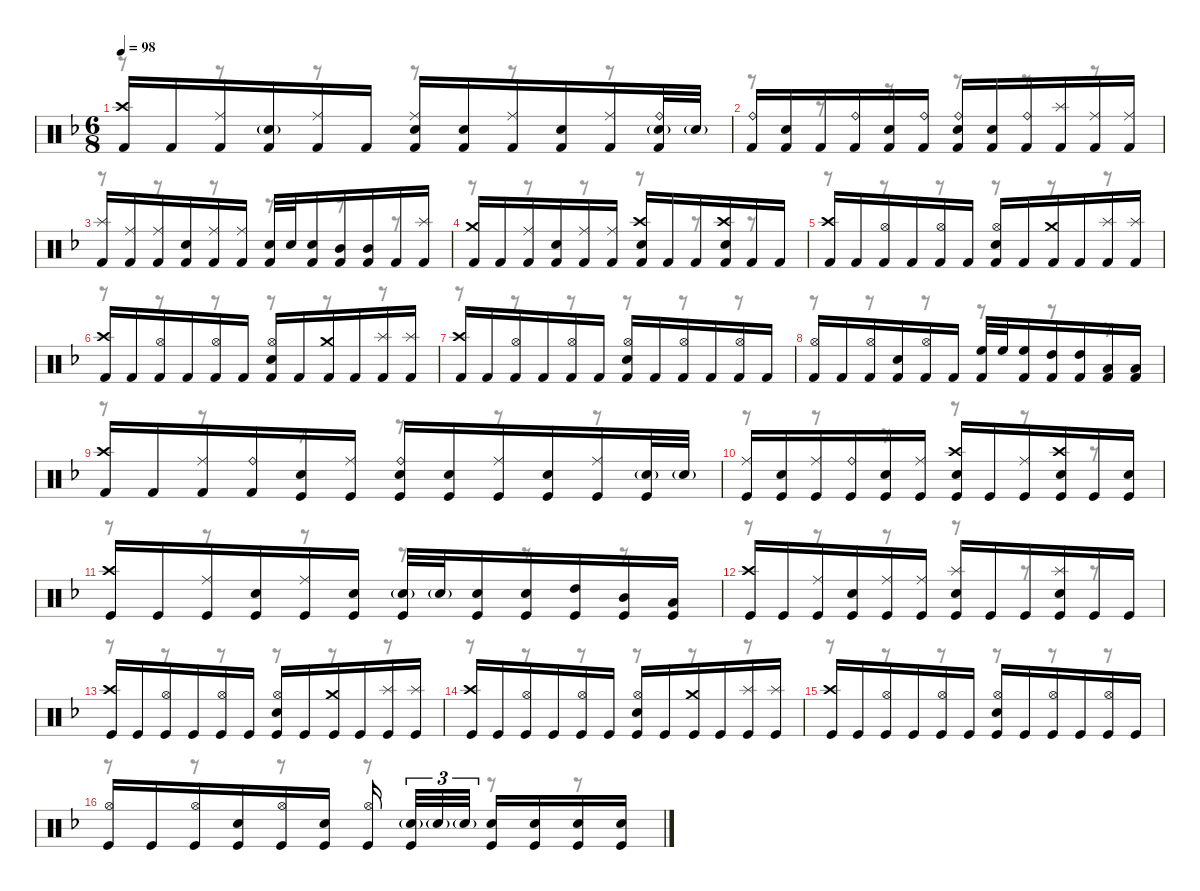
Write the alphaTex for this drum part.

\defaultSystemsLayout 4
\hideDynamics
\bracketExtendMode nobrackets
\singleTrackTrackNamePolicy hidden
\multiTrackTrackNamePolicy hidden
\otherSystemsTrackNameOrientation horizontal
\track ("M. Lopez" "drm.") {instrument percussion}
\staff {score}
\articulation defaults
\voice
\ts (6 8)
\tempo 98
\clef neutral
\ks dminor
("Crash high (hit)"{acc forcenatural} "Kick (hit) 2"{acc forcenatural}).16{dy f beam Up} "Kick (hit) 2"{acc forcenatural}.16{beam Up} ("Ride (middle)"{acc forcenatural} "Kick (hit) 2"{acc forcenatural}).16{beam Up} ("Snare (hit) 2"{g acc forcenatural} "Kick (hit) 2"{acc forcenatural}).16{beam Up} ("Ride (middle)"{acc forcenatural} "Kick (hit) 2"{acc forcenatural}).16{beam Up} "Kick (hit) 2"{acc forcenatural}.16{beam Up} ("Ride (middle)"{acc forcenatural} "Snare (hit) 2"{acc forcenatural} "Kick (hit) 2"{acc forcenatural}).16{beam Up} ("Snare (hit) 2"{acc forcenatural} "Kick (hit) 2"{acc forcenatural}).16{beam Up} ("Ride (middle)"{acc forcenatural} "Kick (hit) 2"{acc forcenatural}).16{beam Up} ("Snare (hit) 2"{acc forcenatural} "Kick (hit) 2"{acc forcenatural}).16{beam Up} ("Ride (middle)"{acc forcenatural} "Kick (hit) 2"{acc forcenatural}).16{beam Up} ("Ride (bell)"{acc forcenatural} "Snare (hit) 2"{g acc forcenatural} "Kick (hit) 2"{acc forcenatural}).32{beam Up} "Snare (hit) 2"{g acc forcenatural}.32{dy mf beam Up} |
("Ride (bell)"{acc forcenatural} "Kick (hit) 2"{acc forcenatural}).16{dy f beam Up} ("Snare (hit) 2"{acc forcenatural} "Kick (hit) 2"{acc forcenatural}).16{beam Up} "Kick (hit) 2"{acc forcenatural}.16{beam Up} ("Ride (bell)"{acc forcenatural} "Kick (hit) 2"{acc forcenatural}).16{beam Up} ("Snare (hit) 2"{acc forcenatural} "Kick (hit) 2"{acc forcenatural}).16{beam Up} ("Ride (bell)"{acc forcenatural} "Kick (hit) 2"{acc forcenatural}).16{beam Up} ("Ride (bell)"{acc forcenatural} "Snare (hit) 2"{acc forcenatural} "Kick (hit) 2"{acc forcenatural}).16{beam Up} ("Snare (hit) 2"{acc forcenatural} "Kick (hit) 2"{acc forcenatural}).16{beam Up} ("Ride (bell)"{acc forcenatural} "Kick (hit) 2"{acc forcenatural}).16{beam Up} ("Splash (hit)"{acc forcenatural} "Kick (hit) 2"{acc forcenatural}).16{beam Up} ("Ride (middle)"{acc forcenatural} "Kick (hit) 2"{acc forcenatural}).16{beam Up} ("Ride (middle)"{acc forcenatural} "Kick (hit) 2"{acc forcenatural}).16{beam Up} |
("Splash (hit)"{acc forcenatural} "Kick (hit) 2"{acc forcenatural}).16{beam Up} ("Ride (middle)"{acc forcenatural} "Kick (hit) 2"{acc forcenatural}).16{beam Up} ("Ride (middle)"{acc forcenatural} "Kick (hit) 2"{acc forcenatural}).16{beam Up} ("Snare (hit) 2"{acc forcenatural} "Kick (hit) 2"{acc forcenatural}).16{beam Up} ("Ride (middle)"{acc forcenatural} "Kick (hit) 2"{acc forcenatural}).16{beam Up} ("Ride (middle)"{acc forcenatural} "Kick (hit) 2"{acc forcenatural}).16{beam Up} ("Snare (hit) 2"{acc forcenatural} "Kick (hit) 2"{acc forcenatural}).32{beam Up} "Snare (hit) 2"{acc forcenatural}.32{beam Up} ("Snare (hit) 2"{acc forcenatural} "Kick (hit) 2"{acc forcenatural}).16{beam Up} ("Mid Tom (hit)"{acc forcenatural} "Kick (hit) 2"{acc forcenatural}).16{beam Up} ("Mid Tom (hit)"{acc forcenatural} "Kick (hit) 2"{acc forcenatural}).16{beam Up} "Kick (hit) 2"{acc forcenatural}.16{beam Up} ("Splash (hit)"{acc forcenatural} "Kick (hit) 2"{acc forcenatural}).16{beam Up} |
("Crash medium (hit)"{acc forcenatural} "Kick (hit) 2"{acc forcenatural}).16{beam Up} "Kick (hit) 2"{acc forcenatural}.16{beam Up} ("Ride (middle)"{acc forcenatural} "Kick (hit) 2"{acc forcenatural}).16{beam Up} ("Snare (hit) 2"{acc forcenatural} "Kick (hit) 2"{acc forcenatural}).16{beam Up} ("Ride (middle)"{acc forcenatural} "Kick (hit) 2"{acc forcenatural}).16{beam Up} ("Ride (middle)"{acc forcenatural} "Kick (hit) 2"{acc forcenatural}).16{dy mf beam Up} ("Crash high (hit)"{acc forcenatural} "Snare (hit) 2"{acc forcenatural} "Kick (hit) 2"{acc forcenatural}).16{dy f beam Up} "Kick (hit) 2"{acc forcenatural}.16{beam Up} "Kick (hit) 2"{acc forcenatural}.16{beam Up} ("Crash high (hit)"{acc forcenatural} "Snare (hit) 2"{acc forcenatural} "Kick (hit) 2"{acc forcenatural}).16{beam Up} "Kick (hit) 2"{acc forcenatural}.16{beam Up} "Kick (hit) 2"{acc forcenatural}.16{beam Up} |
("Crash high (hit)"{acc forcenatural} "Kick (hit) 2"{acc forcenatural}).16{beam Up} "Kick (hit) 2"{acc forcenatural}.16{beam Up} ("Hi-Hat (open)"{acc forcenatural} "Kick (hit) 2"{acc forcenatural}).16{beam Up} "Kick (hit) 2"{acc forcenatural}.16{beam Up} ("Hi-Hat (open)"{acc forcenatural} "Kick (hit) 2"{acc forcenatural}).16{beam Up} "Kick (hit) 2"{acc forcenatural}.16{beam Up} ("Hi-Hat (open)"{acc forcenatural} "Snare (hit) 2"{acc forcenatural} "Kick (hit) 2"{acc forcenatural}).16{beam Up} "Kick (hit) 2"{acc forcenatural}.16{beam Up} ("Crash medium (hit)"{acc forcenatural} "Kick (hit) 2"{acc forcenatural}).16{beam Up} "Kick (hit) 2"{acc forcenatural}.16{beam Up} ("Splash (hit)"{acc forcenatural} "Kick (hit) 2"{acc forcenatural}).16{beam Up} ("Splash (hit)"{acc forcenatural} "Kick (hit) 2"{acc forcenatural}).16{beam Up} |
("Crash high (hit)"{acc forcenatural} "Kick (hit) 2"{acc forcenatural}).16{beam Up} "Kick (hit) 2"{acc forcenatural}.16{beam Up} ("Hi-Hat (open)"{acc forcenatural} "Kick (hit) 2"{acc forcenatural}).16{beam Up} "Kick (hit) 2"{acc forcenatural}.16{beam Up} ("Hi-Hat (open)"{acc forcenatural} "Kick (hit) 2"{acc forcenatural}).16{beam Up} "Kick (hit) 2"{acc forcenatural}.16{beam Up} ("Hi-Hat (open)"{acc forcenatural} "Snare (hit) 2"{acc forcenatural} "Kick (hit) 2"{acc forcenatural}).16{beam Up} "Kick (hit) 2"{acc forcenatural}.16{beam Up} ("Crash medium (hit)"{acc forcenatural} "Kick (hit) 2"{acc forcenatural}).16{beam Up} "Kick (hit) 2"{acc forcenatural}.16{beam Up} ("Splash (hit)"{acc forcenatural} "Kick (hit) 2"{acc forcenatural}).16{beam Up} ("Splash (hit)"{acc forcenatural} "Kick (hit) 2"{acc forcenatural}).16{beam Up} |
("Crash high (hit)"{acc forcenatural} "Kick (hit) 2"{acc forcenatural}).16{beam Up} "Kick (hit) 2"{acc forcenatural}.16{beam Up} ("Hi-Hat (open)"{acc forcenatural} "Kick (hit) 2"{acc forcenatural}).16{beam Up} "Kick (hit) 2"{acc forcenatural}.16{beam Up} ("Hi-Hat (open)"{acc forcenatural} "Kick (hit) 2"{acc forcenatural}).16{beam Up} "Kick (hit) 2"{acc forcenatural}.16{beam Up} ("Hi-Hat (open)"{acc forcenatural} "Snare (hit) 2"{acc forcenatural} "Kick (hit) 2"{acc forcenatural}).16{beam Up} "Kick (hit) 2"{acc forcenatural}.16{beam Up} ("Hi-Hat (open)"{acc forcenatural} "Kick (hit) 2"{acc forcenatural}).16{beam Up} "Kick (hit) 2"{acc forcenatural}.16{beam Up} ("Hi-Hat (open)"{acc forcenatural} "Kick (hit) 2"{acc forcenatural}).16{beam Up} "Kick (hit) 2"{acc forcenatural}.16{beam Up} |
("Hi-Hat (open)"{acc forcenatural} "Kick (hit) 2"{acc forcenatural}).16{beam Up} "Kick (hit) 2"{acc forcenatural}.16{beam Up} ("Hi-Hat (open)"{acc forcenatural} "Kick (hit) 2"{acc forcenatural}).16{beam Up} ("Snare (hit) 2"{acc forcenatural} "Kick (hit) 2"{acc forcenatural}).16{beam Up} ("Hi-Hat (open)"{acc forcenatural} "Kick (hit) 2"{acc forcenatural}).16{beam Up} "Kick (hit) 2"{acc forcenatural}.16{beam Up} ("High Floor Tom (hit)"{acc forcenatural} "Kick (hit) 2"{acc forcenatural}).32{beam Up} "High Floor Tom (hit)"{acc forcenatural}.32{beam Up} ("High Floor Tom (hit)"{acc forcenatural} "Kick (hit) 2"{acc forcenatural}).16{beam Up} ("High Tom (hit)"{acc forcenatural} "Kick (hit) 2"{acc forcenatural}).16{beam Up} ("High Tom (hit)"{acc forcenatural} "Kick (hit) 2"{acc forcenatural}).16{beam Up} ("Low Tom (hit)"{acc forcenatural} "Kick (hit) 2"{acc forcenatural}).16{beam Up} ("Low Tom (hit)"{acc forcenatural} "Kick (hit) 2"{acc forcenatural}).16{beam Up} |
("Crash high (hit)"{acc forcenatural} "Kick (hit) 2"{acc forcenatural}).16{beam Up} "Kick (hit) 2"{acc forcenatural}.16{beam Up} ("Ride (middle)"{acc forcenatural} "Kick (hit) 2"{acc forcenatural}).16{beam Up} ("Ride (bell)"{acc forcenatural} "Kick (hit) 2"{acc forcenatural}).16{beam Up} ("Snare (hit) 2"{acc forcenatural} "Kick (hit)"{acc forcenatural}).16{beam Up} ("Ride (middle)"{acc forcenatural} "Kick (hit)"{acc forcenatural}).16{beam Up} ("Ride (bell)"{acc forcenatural} "Snare (hit) 2"{acc forcenatural} "Kick (hit)"{acc forcenatural}).16{beam Up} ("Snare (hit) 2"{acc forcenatural} "Kick (hit)"{acc forcenatural}).16{beam Up} ("Ride (middle)"{acc forcenatural} "Kick (hit)"{acc forcenatural}).16{beam Up} ("Snare (hit) 2"{acc forcenatural} "Kick (hit)"{acc forcenatural}).16{beam Up} ("Ride (middle)"{acc forcenatural} "Kick (hit)"{acc forcenatural}).16{beam Up} ("Snare (hit) 2"{g acc forcenatural} "Kick (hit)"{acc forcenatural}).32{beam Up} "Snare (hit) 2"{g acc forcenatural}.32{dy mf beam Up} |
("Ride (middle)"{acc forcenatural} "Kick (hit)"{acc forcenatural}).16{dy f beam Up} ("Snare (hit) 2"{acc forcenatural} "Kick (hit)"{acc forcenatural}).16{beam Up} ("Ride (middle)"{acc forcenatural} "Kick (hit)"{acc forcenatural}).16{beam Up} ("Ride (bell)"{acc forcenatural} "Kick (hit)"{acc forcenatural}).16{beam Up} ("Snare (hit) 2"{acc forcenatural} "Kick (hit)"{acc forcenatural}).16{beam Up} ("Ride (middle)"{acc forcenatural} "Kick (hit)"{acc forcenatural}).16{beam Up} ("Crash high (hit)"{acc forcenatural} "Snare (hit) 2"{acc forcenatural} "Kick (hit)"{acc forcenatural}).16{beam Up} "Kick (hit)"{acc forcenatural}.16{beam Up} ("Ride (middle)"{acc forcenatural} "Kick (hit)"{acc forcenatural}).16{beam Up} ("Crash high (hit)"{acc forcenatural} "Snare (hit) 2"{acc forcenatural} "Kick (hit)"{acc forcenatural}).16{beam Up} "Kick (hit)"{acc forcenatural}.16{beam Up} ("Snare (hit) 2"{acc forcenatural} "Kick (hit)"{acc forcenatural}).16{beam Up} |
("Crash high (hit)"{acc forcenatural} "Kick (hit)"{acc forcenatural}).16{beam Up} "Kick (hit)"{acc forcenatural}.16{beam Up} ("Ride (middle)"{acc forcenatural} "Kick (hit)"{acc forcenatural}).16{beam Up} ("Snare (hit) 2"{acc forcenatural} "Kick (hit)"{acc forcenatural}).16{beam Up} ("Ride (middle)"{acc forcenatural} "Kick (hit)"{acc forcenatural}).16{beam Up} ("Snare (hit) 2"{acc forcenatural} "Kick (hit)"{acc forcenatural}).16{beam Up} ("Snare (hit) 2"{g acc forcenatural} "Kick (hit)"{acc forcenatural}).32{beam Up} "Snare (hit) 2"{g acc forcenatural}.32{beam Up} ("Snare (hit) 2"{acc forcenatural} "Kick (hit)"{acc forcenatural}).16{beam Up} ("Snare (hit) 2"{acc forcenatural} "Kick (hit)"{acc forcenatural}).16{dy mf beam Up} ("High Tom (hit)"{acc forcenatural} "Kick (hit)"{acc forcenatural}).16{beam Up} ("Mid Tom (hit)"{acc forcenatural} "Kick (hit)"{acc forcenatural}).16{beam Up} ("Low Tom (hit)"{acc forcenatural} "Kick (hit)"{acc forcenatural}).16{beam Up} |
("Crash high (hit)"{acc forcenatural} "Kick (hit)"{acc forcenatural}).16{dy f beam Up} "Kick (hit)"{acc forcenatural}.16{beam Up} ("Ride (middle)"{acc forcenatural} "Kick (hit)"{acc forcenatural}).16{beam Up} ("Snare (hit) 2"{acc forcenatural} "Kick (hit)"{acc forcenatural}).16{dy mf beam Up} ("Ride (middle)"{acc forcenatural} "Kick (hit)"{acc forcenatural}).16{dy f beam Up} ("Ride (middle)"{acc forcenatural} "Kick (hit)"{acc forcenatural}).16{dy mf beam Up} ("Splash (hit)"{acc forcenatural} "Snare (hit) 2"{acc forcenatural} "Kick (hit)"{acc forcenatural}).16{dy f beam Up} "Kick (hit)"{acc forcenatural}.16{beam Up} "Kick (hit)"{acc forcenatural}.16{beam Up} ("Splash (hit)"{acc forcenatural} "Snare (hit) 2"{acc forcenatural} "Kick (hit)"{acc forcenatural}).16{beam Up} "Kick (hit)"{acc forcenatural}.16{beam Up} "Kick (hit)"{acc forcenatural}.16{beam Up} |
("Crash high (hit)"{acc forcenatural} "Kick (hit)"{acc forcenatural}).16{beam Up} "Kick (hit)"{acc forcenatural}.16{beam Up} ("Hi-Hat (open)"{acc forcenatural} "Kick (hit)"{acc forcenatural}).16{beam Up} "Kick (hit)"{acc forcenatural}.16{beam Up} ("Hi-Hat (open)"{acc forcenatural} "Kick (hit)"{acc forcenatural}).16{beam Up} "Kick (hit)"{acc forcenatural}.16{beam Up} ("Hi-Hat (open)"{acc forcenatural} "Snare (hit) 2"{acc forcenatural} "Kick (hit)"{acc forcenatural}).16{beam Up} "Kick (hit)"{acc forcenatural}.16{beam Up} ("Crash medium (hit)"{acc forcenatural} "Kick (hit)"{acc forcenatural}).16{beam Up} "Kick (hit)"{acc forcenatural}.16{beam Up} ("Splash (hit)"{acc forcenatural} "Kick (hit)"{acc forcenatural}).16{beam Up} ("Splash (hit)"{acc forcenatural} "Kick (hit)"{acc forcenatural}).16{beam Up} |
("Crash high (hit)"{acc forcenatural} "Kick (hit)"{acc forcenatural}).16{beam Up} "Kick (hit)"{acc forcenatural}.16{beam Up} ("Hi-Hat (open)"{acc forcenatural} "Kick (hit)"{acc forcenatural}).16{beam Up} "Kick (hit)"{acc forcenatural}.16{beam Up} ("Hi-Hat (open)"{acc forcenatural} "Kick (hit)"{acc forcenatural}).16{beam Up} "Kick (hit)"{acc forcenatural}.16{beam Up} ("Hi-Hat (open)"{acc forcenatural} "Snare (hit) 2"{acc forcenatural} "Kick (hit)"{acc forcenatural}).16{beam Up} "Kick (hit)"{acc forcenatural}.16{beam Up} ("Crash medium (hit)"{acc forcenatural} "Kick (hit)"{acc forcenatural}).16{beam Up} "Kick (hit)"{acc forcenatural}.16{beam Up} ("Splash (hit)"{acc forcenatural} "Kick (hit)"{acc forcenatural}).16{beam Up} ("Splash (hit)"{acc forcenatural} "Kick (hit)"{acc forcenatural}).16{beam Up} |
("Crash high (hit)"{acc forcenatural} "Kick (hit)"{acc forcenatural}).16{beam Up} "Kick (hit)"{acc forcenatural}.16{beam Up} ("Hi-Hat (open)"{acc forcenatural} "Kick (hit)"{acc forcenatural}).16{beam Up} "Kick (hit)"{acc forcenatural}.16{beam Up} ("Hi-Hat (open)"{acc forcenatural} "Kick (hit)"{acc forcenatural}).16{beam Up} "Kick (hit)"{acc forcenatural}.16{beam Up} ("Hi-Hat (open)"{acc forcenatural} "Snare (hit) 2"{acc forcenatural} "Kick (hit)"{acc forcenatural}).16{beam Up} "Kick (hit)"{acc forcenatural}.16{beam Up} ("Hi-Hat (open)"{acc forcenatural} "Kick (hit)"{acc forcenatural}).16{beam Up} "Kick (hit)"{acc forcenatural}.16{beam Up} ("Hi-Hat (open)"{acc forcenatural} "Kick (hit)"{acc forcenatural}).16{beam Up} "Kick (hit)"{acc forcenatural}.16{beam Up} |
("Hi-Hat (open)"{acc forcenatural} "Kick (hit)"{acc forcenatural}).16{beam Up} "Kick (hit)"{acc forcenatural}.16{beam Up} ("Hi-Hat (open)"{acc forcenatural} "Kick (hit)"{acc forcenatural}).16{beam Up} ("Snare (hit) 2"{acc forcenatural} "Kick (hit)"{acc forcenatural}).16{beam Up} ("Hi-Hat (open)"{acc forcenatural} "Kick (hit)"{acc forcenatural}).16{beam Up} ("Snare (hit) 2"{acc forcenatural} "Kick (hit)"{acc forcenatural}).16{dy mf beam Up} ("Hi-Hat (open)"{acc forcenatural} "Kick (hit)"{acc forcenatural}).16{beam Up} ("Snare (hit) 2"{g acc forcenatural} "Kick (hit)"{acc forcenatural}).32{tu (3 2) dy f beam Up} "Snare (hit) 2"{g acc forcenatural}.32{tu (3 2) beam Up} "Snare (hit) 2"{g acc forcenatural}.32{tu (3 2) beam Up} ("Snare (hit) 2"{acc forcenatural} "Kick (hit)"{acc forcenatural}).16{dy mf beam Up} ("Snare (hit) 2"{acc forcenatural} "Kick (hit)"{acc forcenatural}).16{dy f beam Up} ("Snare (hit) 2"{acc forcenatural} "Kick (hit)"{acc forcenatural}).16{beam Up} ("Snare (hit) 2"{acc forcenatural} "Kick (hit)"{acc forcenatural}).16{beam Up}
\voice
\clef neutral
\ottava regular
\simile none
\ks dminor
r.8{dy mf beam Down} r.8{beam Down} r.8{beam Down} r.8{beam Down} r.8{beam Down} r.8{beam Down} |
r.8{beam Down} r.8{beam Down} r.8{beam Down} r.8{beam Down} r.8{beam Down} r.8{beam Down} |
r.8{beam Down} r.8{beam Down} r.8{beam Down} r.8{beam Down} r.8{beam Down} r.8{beam Down} |
r.8{beam Down} r.8{beam Down} r.8{beam Down} r.8{beam Down} r.8{beam Down} r.8{beam Down} |
r.8{beam Down} r.8{beam Down} r.8{beam Down} r.8{beam Down} r.8{beam Down} r.8{beam Down} |
r.8{beam Down} r.8{beam Down} r.8{beam Down} r.8{beam Down} r.8{beam Down} r.8{beam Down} |
r.8{beam Down} r.8{beam Down} r.8{beam Down} r.8{beam Down} r.8{beam Down} r.8{beam Down} |
r.8{beam Down} r.8{beam Down} r.8{beam Down} r.8{beam Down} r.8{beam Down} r.8{beam Down} |
r.8{beam Down} r.8{beam Down} r.8{beam Down} r.8{beam Down} r.8{beam Down} r.8{beam Down} |
r.8{beam Down} r.8{beam Down} r.8{beam Down} r.8{beam Down} r.8{beam Down} r.8{beam Down} |
r.8{beam Down} r.8{beam Down} r.8{beam Down} r.8{beam Down} r.8{beam Down} r.8{beam Down} |
r.8{beam Down} r.8{beam Down} r.8{beam Down} r.8{beam Down} r.8{beam Down} r.8{beam Down} |
r.8{beam Down} r.8{beam Down} r.8{beam Down} r.8{beam Down} r.8{beam Down} r.8{beam Down} |
r.8{beam Down} r.8{beam Down} r.8{beam Down} r.8{beam Down} r.8{beam Down} r.8{beam Down} |
r.8{beam Down} r.8{beam Down} r.8{beam Down} r.8{beam Down} r.8{beam Down} r.8{beam Down} |
r.8{beam Down} r.8{beam Down} r.8{beam Down} r.8{beam Down} r.8{beam Down} r.8{beam Down}
